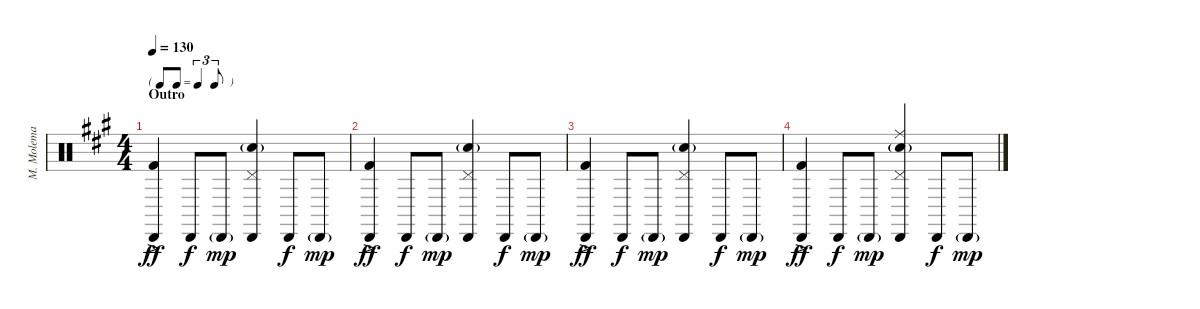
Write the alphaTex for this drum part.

\track ("M. Molema" "M. Molema") {instrument percussion}
\staff {score}
\articulation defaults
\ts (4 4)
\tf triplet8th
\section ("" "Outro")
\tempo 130
\clef neutral
\ks a
("Cabasa (hit)" "Kick (hit) 2"{ac}).4{dy ff} "Cabasa (hit)".8{dy f} "Cabasa (hit)"{g}.8{dy mp} ("Pedal Hi-Hat (hit)" "Cabasa (hit)" "Snare (hit) 2"{g}).4 "Cabasa (hit)".8{dy f} "Cabasa (hit)"{g}.8{dy mp} |
("Cabasa (hit)" "Kick (hit) 2"{ac}).4{dy ff} "Cabasa (hit)".8{dy f} "Cabasa (hit)"{g}.8{dy mp} ("Pedal Hi-Hat (hit)" "Cabasa (hit)" "Snare (hit) 2"{g}).4 "Cabasa (hit)".8{dy f} "Cabasa (hit)"{g}.8{dy mp} |
("Cabasa (hit)" "Kick (hit) 2"{ac}).4{dy ff} "Cabasa (hit)".8{dy f} "Cabasa (hit)"{g}.8{dy mp} ("Pedal Hi-Hat (hit)" "Cabasa (hit)" "Snare (hit) 2"{g}).4 "Cabasa (hit)".8{dy f} "Cabasa (hit)"{g}.8{dy mp} |
("Cabasa (hit)" "Kick (hit) 2"{ac}).4{dy ff} "Cabasa (hit)".8{dy f} "Cabasa (hit)"{g}.8{dy mp} ("Pedal Hi-Hat (hit)" "Ride (middle)" "Cabasa (hit)" "Snare (hit) 2"{g}).4 "Cabasa (hit)".8{dy f} "Cabasa (hit)"{g}.8{dy mp}
